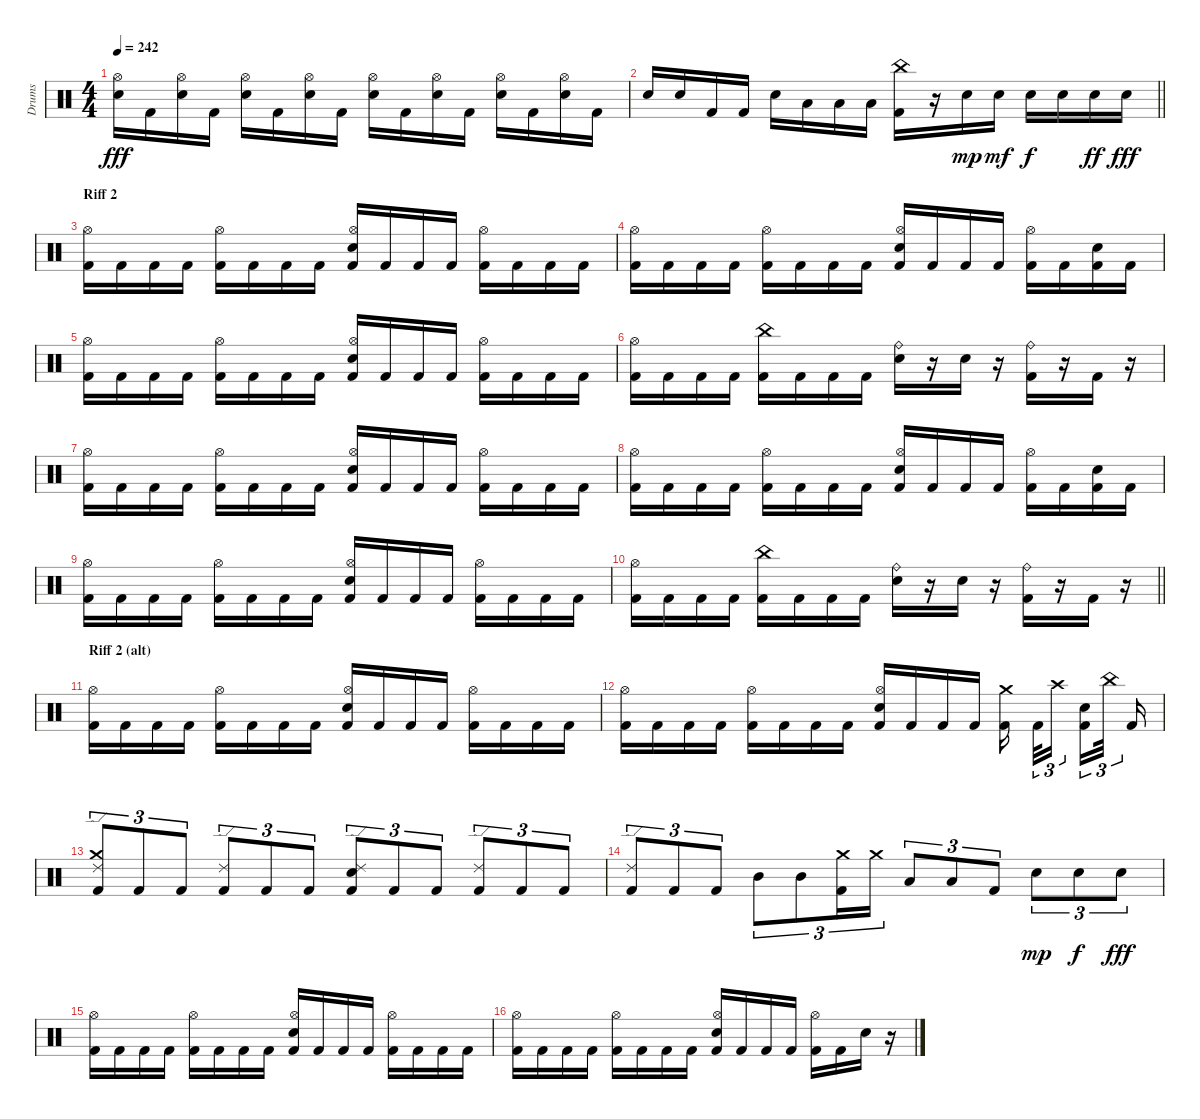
\track ("Drums" "Drums") {instrument percussion}
\staff {score}
\articulation defaults
\ts (4 4)
\tempo 242
\clef neutral
\ks c
("Snare (hit) 2" "Hi-Hat (open)").16{dy fff} "Kick (hit) 2".16 ("Snare (hit) 2" "Hi-Hat (open)").16 "Kick (hit) 2".16 ("Snare (hit) 2" "Hi-Hat (open)").16 "Kick (hit) 2".16 ("Snare (hit) 2" "Hi-Hat (open)").16 "Kick (hit) 2".16 ("Snare (hit) 2" "Hi-Hat (open)").16 "Kick (hit) 2".16 ("Snare (hit) 2" "Hi-Hat (open)").16 "Kick (hit) 2".16 ("Snare (hit) 2" "Hi-Hat (open)").16 "Kick (hit) 2".16 ("Snare (hit) 2" "Hi-Hat (open)").16 "Kick (hit) 2".16 |
\barLineRight lightlight "Snare (hit) 2".16 "Snare (hit) 2".16 "Kick (hit) 2".16 "Kick (hit) 2".16 "Snare (hit) 2".16 "Low Tom (hit)".16 "Low Tom (hit)".16 "Low Tom (hit)".16
("Kick (hit) 2" "China (hit)").16 r.16 "Snare (hit) 2".16{dy mp} "Snare (hit) 2".16{dy mf} "Snare (hit) 2".16{dy f} "Snare (hit) 2".16 "Snare (hit) 2".16{dy ff} "Snare (hit) 2".16{dy fff} |
\section ("" "Riff 2")
("Kick (hit) 2" "Hi-Hat (open)").16 "Kick (hit) 2".16 "Kick (hit) 2".16 "Kick (hit) 2".16 ("Kick (hit) 2" "Hi-Hat (open)").16 "Kick (hit) 2".16 "Kick (hit) 2".16 "Kick (hit) 2".16 ("Kick (hit) 2" "Snare (hit) 2" "Hi-Hat (open)").16 "Kick (hit) 2".16 "Kick (hit) 2".16 "Kick (hit) 2".16 ("Kick (hit) 2" "Hi-Hat (open)").16 "Kick (hit) 2".16 "Kick (hit) 2".16 "Kick (hit) 2".16 |
("Kick (hit) 2" "Hi-Hat (open)").16 "Kick (hit) 2".16 "Kick (hit) 2".16 "Kick (hit) 2".16 ("Kick (hit) 2" "Hi-Hat (open)").16 "Kick (hit) 2".16 "Kick (hit) 2".16 "Kick (hit) 2".16 ("Kick (hit) 2" "Snare (hit) 2" "Hi-Hat (open)").16 "Kick (hit) 2".16 "Kick (hit) 2".16 "Kick (hit) 2".16 ("Kick (hit) 2" "Hi-Hat (open)").16 "Kick (hit) 2".16 ("Kick (hit) 2" "Snare (hit) 2").16 "Kick (hit) 2".16 |
("Kick (hit) 2" "Hi-Hat (open)").16 "Kick (hit) 2".16 "Kick (hit) 2".16 "Kick (hit) 2".16 ("Kick (hit) 2" "Hi-Hat (open)").16 "Kick (hit) 2".16 "Kick (hit) 2".16 "Kick (hit) 2".16 ("Kick (hit) 2" "Snare (hit) 2" "Hi-Hat (open)").16 "Kick (hit) 2".16 "Kick (hit) 2".16 "Kick (hit) 2".16 ("Kick (hit) 2" "Hi-Hat (open)").16 "Kick (hit) 2".16 "Kick (hit) 2".16 "Kick (hit) 2".16 |
("Kick (hit) 2" "Hi-Hat (open)").16 "Kick (hit) 2".16 "Kick (hit) 2".16 "Kick (hit) 2".16 ("Kick (hit) 2" "China (hit)").16 "Kick (hit) 2".16 "Kick (hit) 2".16 "Kick (hit) 2".16 ("Snare (hit) 2" "Ride (bell)").16 r.16 "Snare (hit) 2".16 r.16 ("Kick (hit) 2" "Ride (bell)").16 r.16 "Kick (hit) 2".16 r.16 |
("Kick (hit) 2" "Hi-Hat (open)").16 "Kick (hit) 2".16 "Kick (hit) 2".16 "Kick (hit) 2".16 ("Kick (hit) 2" "Hi-Hat (open)").16 "Kick (hit) 2".16 "Kick (hit) 2".16 "Kick (hit) 2".16 ("Kick (hit) 2" "Snare (hit) 2" "Hi-Hat (open)").16 "Kick (hit) 2".16 "Kick (hit) 2".16 "Kick (hit) 2".16 ("Kick (hit) 2" "Hi-Hat (open)").16 "Kick (hit) 2".16 "Kick (hit) 2".16 "Kick (hit) 2".16 |
("Kick (hit) 2" "Hi-Hat (open)").16 "Kick (hit) 2".16 "Kick (hit) 2".16 "Kick (hit) 2".16 ("Kick (hit) 2" "Hi-Hat (open)").16 "Kick (hit) 2".16 "Kick (hit) 2".16 "Kick (hit) 2".16 ("Kick (hit) 2" "Snare (hit) 2" "Hi-Hat (open)").16 "Kick (hit) 2".16 "Kick (hit) 2".16 "Kick (hit) 2".16 ("Kick (hit) 2" "Hi-Hat (open)").16 "Kick (hit) 2".16 ("Kick (hit) 2" "Snare (hit) 2").16 "Kick (hit) 2".16 |
("Kick (hit) 2" "Hi-Hat (open)").16 "Kick (hit) 2".16 "Kick (hit) 2".16 "Kick (hit) 2".16 ("Kick (hit) 2" "Hi-Hat (open)").16 "Kick (hit) 2".16 "Kick (hit) 2".16 "Kick (hit) 2".16 ("Kick (hit) 2" "Snare (hit) 2" "Hi-Hat (open)").16 "Kick (hit) 2".16 "Kick (hit) 2".16 "Kick (hit) 2".16 ("Kick (hit) 2" "Hi-Hat (open)").16 "Kick (hit) 2".16 "Kick (hit) 2".16 "Kick (hit) 2".16 |
\barLineRight lightlight
("Kick (hit) 2" "Hi-Hat (open)").16 "Kick (hit) 2".16 "Kick (hit) 2".16 "Kick (hit) 2".16 ("Kick (hit) 2" "China (hit)").16 "Kick (hit) 2".16 "Kick (hit) 2".16 "Kick (hit) 2".16 ("Snare (hit) 2" "Ride (bell)").16 r.16 "Snare (hit) 2".16 r.16 ("Kick (hit) 2" "Ride (bell)").16 r.16 "Kick (hit) 2".16 r.16 |
\section ("" "Riff 2 (alt)")
("Kick (hit) 2" "Hi-Hat (open)").16 "Kick (hit) 2".16 "Kick (hit) 2".16 "Kick (hit) 2".16 ("Kick (hit) 2" "Hi-Hat (open)").16 "Kick (hit) 2".16 "Kick (hit) 2".16 "Kick (hit) 2".16 ("Kick (hit) 2" "Snare (hit) 2" "Hi-Hat (open)").16 "Kick (hit) 2".16 "Kick (hit) 2".16 "Kick (hit) 2".16 ("Kick (hit) 2" "Hi-Hat (open)").16 "Kick (hit) 2".16 "Kick (hit) 2".16 "Kick (hit) 2".16 |
("Kick (hit) 2" "Hi-Hat (open)").16 "Kick (hit) 2".16 "Kick (hit) 2".16 "Kick (hit) 2".16 ("Kick (hit) 2" "Hi-Hat (open)").16 "Kick (hit) 2".16 "Kick (hit) 2".16 "Kick (hit) 2".16 ("Kick (hit) 2" "Snare (hit) 2" "Hi-Hat (open)").16 "Kick (hit) 2".16 "Kick (hit) 2".16 "Kick (hit) 2".16 ("Kick (hit) 2" "Crash medium (hit)").16{beam splitsecondary} "Kick (hit) 2".32{tu (3 2)} "Crash high (hit)".16{tu (3 2) beam splitsecondary} ("Kick (hit) 2" "Snare (hit) 2").16{tu (3 2)} "China (hit)".32{tu (3 2) beam splitsecondary} "Kick (hit) 2".16 |
("Kick (hit) 2" "Ride (edge) 2" "Crash medium (hit)").8{tu (3 2)} "Kick (hit) 2".8{tu (3 2)} "Kick (hit) 2".8{tu (3 2)} ("Kick (hit) 2" "Ride (edge) 2").8{tu (3 2)} "Kick (hit) 2".8{tu (3 2)} "Kick (hit) 2".8{tu (3 2)} ("Kick (hit) 2" "Snare (hit) 2" "Ride (edge) 2").8{tu (3 2)} "Kick (hit) 2".8{tu (3 2)} "Kick (hit) 2".8{tu (3 2)} ("Kick (hit) 2" "Ride (edge) 2").8{tu (3 2)} "Kick (hit) 2".8{tu (3 2)} "Kick (hit) 2".8{tu (3 2)} |
("Kick (hit) 2" "Ride (edge) 2").8{tu (3 2)} "Kick (hit) 2".8{tu (3 2)} "Kick (hit) 2".8{tu (3 2)} "Mid Tom (hit)".8{tu (3 2)} "Mid Tom (hit)".8{tu (3 2)} ("Kick (hit) 2" "Crash medium (hit)").16{tu (3 2)} "Crash medium (hit)".16{tu (3 2)} "Low Tom (hit)".8{tu (3 2)} "Low Tom (hit)".8{tu (3 2)} "Kick (hit) 2".8{tu (3 2)} "Snare (hit) 2".8{tu (3 2) dy mp} "Snare (hit) 2".8{tu (3 2) dy f} "Snare (hit) 2".8{tu (3 2) dy fff} |
("Kick (hit) 2" "Hi-Hat (open)").16 "Kick (hit) 2".16 "Kick (hit) 2".16 "Kick (hit) 2".16 ("Kick (hit) 2" "Hi-Hat (open)").16 "Kick (hit) 2".16 "Kick (hit) 2".16 "Kick (hit) 2".16 ("Kick (hit) 2" "Snare (hit) 2" "Hi-Hat (open)").16 "Kick (hit) 2".16 "Kick (hit) 2".16 "Kick (hit) 2".16 ("Kick (hit) 2" "Hi-Hat (open)").16 "Kick (hit) 2".16 "Kick (hit) 2".16 "Kick (hit) 2".16 |
("Kick (hit) 2" "Hi-Hat (open)").16 "Kick (hit) 2".16 "Kick (hit) 2".16 "Kick (hit) 2".16 ("Kick (hit) 2" "Hi-Hat (open)").16 "Kick (hit) 2".16 "Kick (hit) 2".16 "Kick (hit) 2".16 ("Kick (hit) 2" "Snare (hit) 2" "Hi-Hat (open)").16 "Kick (hit) 2".16 "Kick (hit) 2".16 "Kick (hit) 2".16 ("Kick (hit) 2" "Hi-Hat (open)").16 "Kick (hit) 2".16 "Snare (hit) 2".16 r.16
